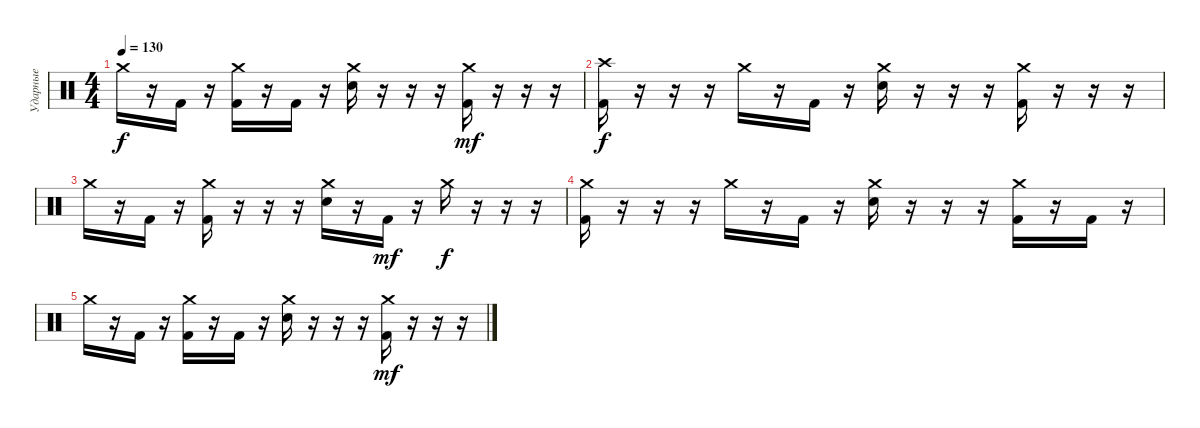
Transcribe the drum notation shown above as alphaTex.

\track ("Ударные" "Ударные") {instrument percussion}
\staff {score}
\articulation defaults
\ts (4 4)
\tempo 130
\clef neutral
\ks c "Crash medium (hit)".16{dy f}
r.16 "Kick (hit) 2".16 r.16 ("Crash medium (hit)" "Kick (hit) 2").16 r.16 "Kick (hit) 2".16 r.16 ("Crash medium (hit)" "Electric Snare (hit)").16 r.16 r.16 r.16 ("Crash medium (hit)" "Kick (hit) 2").16{dy mf} r.16 r.16 r.16 |
("Crash high (hit)" "Kick (hit) 2").16{dy f} r.16 r.16 r.16 "Crash medium (hit)".16 r.16 "Kick (hit) 2".16 r.16 ("Crash medium (hit)" "Electric Snare (hit)").16 r.16 r.16 r.16 ("Crash medium (hit)" "Kick (hit) 2").16 r.16 r.16 r.16 |
"Crash medium (hit)".16 r.16 "Kick (hit) 2".16 r.16 ("Crash medium (hit)" "Kick (hit) 2").16 r.16 r.16 r.16 ("Crash medium (hit)" "Electric Snare (hit)").16 r.16 "Kick (hit) 2".16{dy mf} r.16 "Crash medium (hit)".16{dy f} r.16 r.16 r.16 |
("Crash medium (hit)" "Kick (hit) 2").16 r.16 r.16 r.16 "Crash medium (hit)".16 r.16 "Kick (hit) 2".16 r.16 ("Crash medium (hit)" "Electric Snare (hit)").16 r.16 r.16 r.16 ("Crash medium (hit)" "Kick (hit) 2").16 r.16 "Kick (hit) 2".16 r.16 |
"Crash medium (hit)".16 r.16 "Kick (hit) 2".16 r.16 ("Crash medium (hit)" "Kick (hit) 2").16 r.16 "Kick (hit) 2".16 r.16 ("Crash medium (hit)" "Electric Snare (hit)").16 r.16 r.16 r.16 ("Crash medium (hit)" "Kick (hit) 2").16{dy mf} r.16 r.16 r.16
